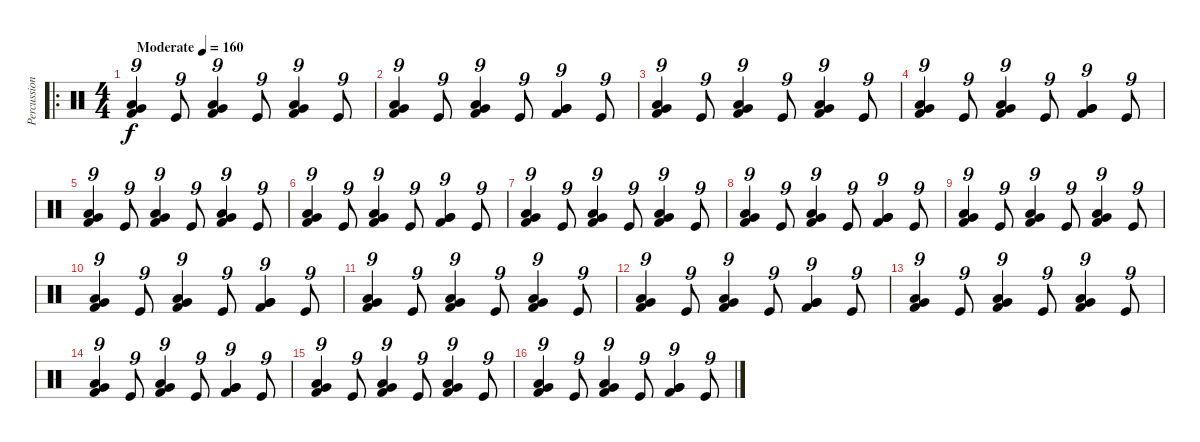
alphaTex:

\track ("Percussion" "Percussion") {instrument percussion}
\staff {score}
\articulation defaults
\ro
\ts (4 4)
\tempo (160 "Moderate")
\clef neutral
\ks c
("Very Low Tom (hit)" "Kick (hit) 2" "Low Floor Tom (hit)").4{tu (9 8) dy f} "Kick (hit)".8{tu (9 8)} ("Very Low Tom (hit)" "Kick (hit) 2" "Low Floor Tom (hit)").4{tu (9 8)} "Kick (hit)".8{tu (9 8)} ("Very Low Tom (hit)" "Kick (hit) 2" "Low Tom (hit)").4{tu (9 8)} "Kick (hit)".8{tu (9 8)} |
("Very Low Tom (hit)" "Kick (hit) 2" "Low Floor Tom (hit)").4{tu (9 8)} "Kick (hit)".8{tu (9 8)} ("Very Low Tom (hit)" "Kick (hit) 2" "Low Floor Tom (hit)").4{tu (9 8)} "Kick (hit)".8{tu (9 8)} ("Very Low Tom (hit)" "Kick (hit) 2" "Very Low Tom (hit)").4{tu (9 8)} "Kick (hit)".8{tu (9 8)} |
("Very Low Tom (hit)" "Kick (hit) 2" "Low Floor Tom (hit)").4{tu (9 8)} "Kick (hit)".8{tu (9 8)} ("Very Low Tom (hit)" "Kick (hit) 2" "Low Floor Tom (hit)").4{tu (9 8)} "Kick (hit)".8{tu (9 8)} ("Very Low Tom (hit)" "Kick (hit) 2" "Low Tom (hit)").4{tu (9 8)} "Kick (hit)".8{tu (9 8)} |
("Very Low Tom (hit)" "Kick (hit) 2" "Low Floor Tom (hit)").4{tu (9 8)} "Kick (hit)".8{tu (9 8)} ("Very Low Tom (hit)" "Kick (hit) 2" "Low Floor Tom (hit)").4{tu (9 8)} "Kick (hit)".8{tu (9 8)} ("Very Low Tom (hit)" "Kick (hit) 2" "Very Low Tom (hit)").4{tu (9 8)} "Kick (hit)".8{tu (9 8)} |
("Very Low Tom (hit)" "Kick (hit) 2" "Low Floor Tom (hit)").4{tu (9 8)} "Kick (hit)".8{tu (9 8)} ("Very Low Tom (hit)" "Kick (hit) 2" "Low Floor Tom (hit)").4{tu (9 8)} "Kick (hit)".8{tu (9 8)} ("Very Low Tom (hit)" "Kick (hit) 2" "Low Tom (hit)").4{tu (9 8)} "Kick (hit)".8{tu (9 8)} |
("Very Low Tom (hit)" "Kick (hit) 2" "Low Floor Tom (hit)").4{tu (9 8)} "Kick (hit)".8{tu (9 8)} ("Very Low Tom (hit)" "Kick (hit) 2" "Low Floor Tom (hit)").4{tu (9 8)} "Kick (hit)".8{tu (9 8)} ("Very Low Tom (hit)" "Kick (hit) 2" "Very Low Tom (hit)").4{tu (9 8)} "Kick (hit)".8{tu (9 8)} |
("Very Low Tom (hit)" "Kick (hit) 2" "Low Floor Tom (hit)").4{tu (9 8)} "Kick (hit)".8{tu (9 8)} ("Very Low Tom (hit)" "Kick (hit) 2" "Low Floor Tom (hit)").4{tu (9 8)} "Kick (hit)".8{tu (9 8)} ("Very Low Tom (hit)" "Kick (hit) 2" "Low Tom (hit)").4{tu (9 8)} "Kick (hit)".8{tu (9 8)} |
("Very Low Tom (hit)" "Kick (hit) 2" "Low Floor Tom (hit)").4{tu (9 8)} "Kick (hit)".8{tu (9 8)} ("Very Low Tom (hit)" "Kick (hit) 2" "Low Floor Tom (hit)").4{tu (9 8)} "Kick (hit)".8{tu (9 8)} ("Very Low Tom (hit)" "Kick (hit) 2" "Very Low Tom (hit)").4{tu (9 8)} "Kick (hit)".8{tu (9 8)} |
("Very Low Tom (hit)" "Kick (hit) 2" "Low Floor Tom (hit)").4{tu (9 8)} "Kick (hit)".8{tu (9 8)} ("Very Low Tom (hit)" "Kick (hit) 2" "Low Floor Tom (hit)").4{tu (9 8)} "Kick (hit)".8{tu (9 8)} ("Very Low Tom (hit)" "Kick (hit) 2" "Low Tom (hit)").4{tu (9 8)} "Kick (hit)".8{tu (9 8)} |
("Very Low Tom (hit)" "Kick (hit) 2" "Low Floor Tom (hit)").4{tu (9 8)} "Kick (hit)".8{tu (9 8)} ("Very Low Tom (hit)" "Kick (hit) 2" "Low Floor Tom (hit)").4{tu (9 8)} "Kick (hit)".8{tu (9 8)} ("Very Low Tom (hit)" "Kick (hit) 2" "Very Low Tom (hit)").4{tu (9 8)} "Kick (hit)".8{tu (9 8)} |
("Very Low Tom (hit)" "Kick (hit) 2" "Low Floor Tom (hit)").4{tu (9 8)} "Kick (hit)".8{tu (9 8)} ("Very Low Tom (hit)" "Kick (hit) 2" "Low Floor Tom (hit)").4{tu (9 8)} "Kick (hit)".8{tu (9 8)} ("Very Low Tom (hit)" "Kick (hit) 2" "Low Tom (hit)").4{tu (9 8)} "Kick (hit)".8{tu (9 8)} |
("Very Low Tom (hit)" "Kick (hit) 2" "Low Floor Tom (hit)").4{tu (9 8)} "Kick (hit)".8{tu (9 8)} ("Very Low Tom (hit)" "Kick (hit) 2" "Low Floor Tom (hit)").4{tu (9 8)} "Kick (hit)".8{tu (9 8)} ("Very Low Tom (hit)" "Kick (hit) 2" "Very Low Tom (hit)").4{tu (9 8)} "Kick (hit)".8{tu (9 8)} |
("Very Low Tom (hit)" "Kick (hit) 2" "Low Floor Tom (hit)").4{tu (9 8)} "Kick (hit)".8{tu (9 8)} ("Very Low Tom (hit)" "Kick (hit) 2" "Low Floor Tom (hit)").4{tu (9 8)} "Kick (hit)".8{tu (9 8)} ("Very Low Tom (hit)" "Kick (hit) 2" "Low Tom (hit)").4{tu (9 8)} "Kick (hit)".8{tu (9 8)} |
("Very Low Tom (hit)" "Kick (hit) 2" "Low Floor Tom (hit)").4{tu (9 8)} "Kick (hit)".8{tu (9 8)} ("Very Low Tom (hit)" "Kick (hit) 2" "Low Floor Tom (hit)").4{tu (9 8)} "Kick (hit)".8{tu (9 8)} ("Very Low Tom (hit)" "Kick (hit) 2" "Very Low Tom (hit)").4{tu (9 8)} "Kick (hit)".8{tu (9 8)} |
("Very Low Tom (hit)" "Kick (hit) 2" "Low Floor Tom (hit)").4{tu (9 8)} "Kick (hit)".8{tu (9 8)} ("Very Low Tom (hit)" "Kick (hit) 2" "Low Floor Tom (hit)").4{tu (9 8)} "Kick (hit)".8{tu (9 8)} ("Very Low Tom (hit)" "Kick (hit) 2" "Low Tom (hit)").4{tu (9 8)} "Kick (hit)".8{tu (9 8)} |
("Very Low Tom (hit)" "Kick (hit) 2" "Low Floor Tom (hit)").4{tu (9 8)} "Kick (hit)".8{tu (9 8)} ("Very Low Tom (hit)" "Kick (hit) 2" "Low Floor Tom (hit)").4{tu (9 8)} "Kick (hit)".8{tu (9 8)} ("Very Low Tom (hit)" "Kick (hit) 2" "Very Low Tom (hit)").4{tu (9 8)} "Kick (hit)".8{tu (9 8)}
